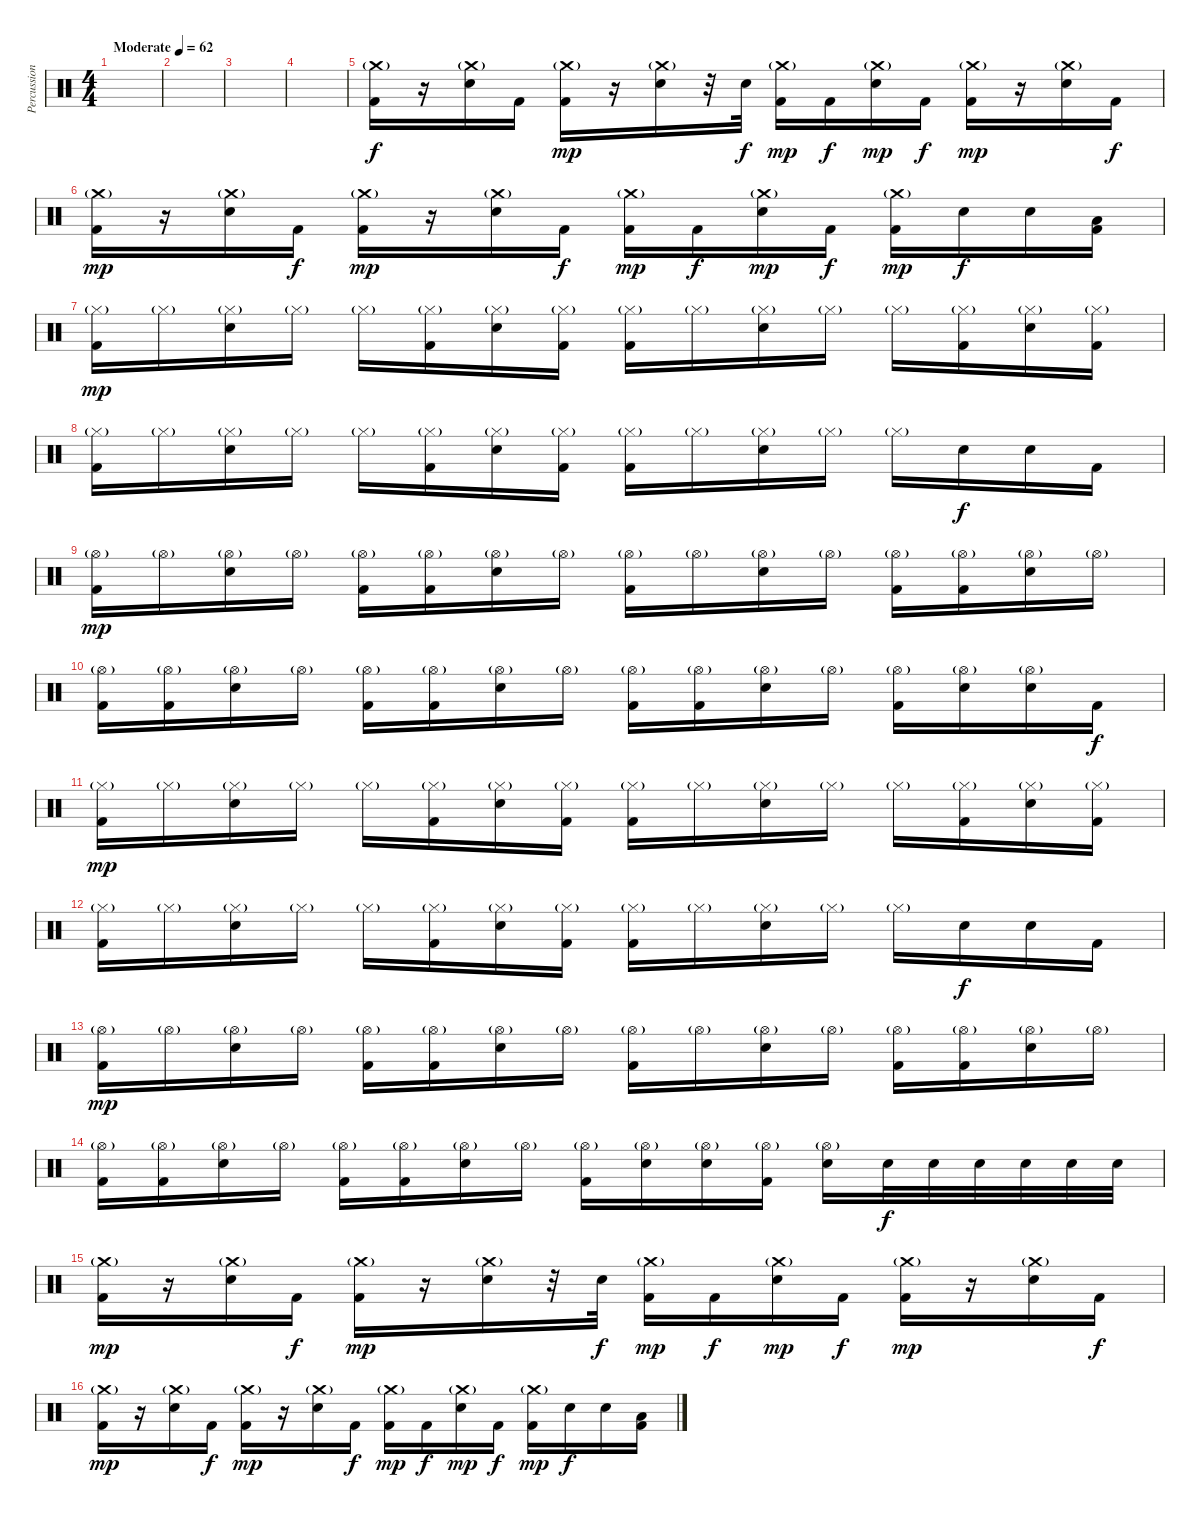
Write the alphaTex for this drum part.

\track ("Percussion" "Percussion") {instrument percussion}
\staff {score}
\articulation defaults
\ts (4 4)
\tempo (62 "Moderate")
\clef neutral
\ks c
|
|
|
|
("Crash medium (hit)"{g} "Kick (hit) 2").16 r.16 ("Crash medium (hit)"{g} "Electric Snare (hit)").16 "Kick (hit) 2".16{dy f} ("Crash medium (hit)"{g} "Kick (hit) 2").16{dy mp} r.16 ("Crash medium (hit)"{g} "Electric Snare (hit)").16 r.32 "Electric Snare (hit)".32{dy f} ("Crash medium (hit)"{g} "Kick (hit) 2").16{dy mp} "Kick (hit) 2".16{dy f} ("Crash medium (hit)"{g} "Electric Snare (hit)").16{dy mp} "Kick (hit) 2".16{dy f} ("Crash medium (hit)"{g} "Kick (hit) 2").16{dy mp} r.16 ("Crash medium (hit)"{g} "Electric Snare (hit)").16 "Kick (hit) 2".16{dy f} |
("Crash medium (hit)"{g} "Kick (hit) 2").16{dy mp} r.16 ("Crash medium (hit)"{g} "Electric Snare (hit)").16 "Kick (hit) 2".16{dy f} ("Crash medium (hit)"{g} "Kick (hit) 2").16{dy mp} r.16 ("Crash medium (hit)"{g} "Electric Snare (hit)").16 "Kick (hit) 2".16{dy f} ("Crash medium (hit)"{g} "Kick (hit) 2").16{dy mp} "Kick (hit) 2".16{dy f} ("Crash medium (hit)"{g} "Electric Snare (hit)").16{dy mp} "Kick (hit) 2".16{dy f} ("Crash medium (hit)"{g} "Kick (hit) 2").16{dy mp} "Electric Snare (hit)".16{dy f} "Electric Snare (hit)".16 ("Low Tom (hit)" "Kick (hit) 2").16 |
("Hi-Hat (closed)"{g} "Kick (hit) 2").16{dy mp} "Hi-Hat (closed)"{g}.16 ("Hi-Hat (closed)"{g} "Electric Snare (hit)").16 "Hi-Hat (closed)"{g}.16 "Hi-Hat (closed)"{g}.16 ("Hi-Hat (closed)"{g} "Kick (hit) 2").16 ("Hi-Hat (closed)"{g} "Electric Snare (hit)").16 ("Hi-Hat (closed)"{g} "Kick (hit) 2").16 ("Hi-Hat (closed)"{g} "Kick (hit) 2").16 "Hi-Hat (closed)"{g}.16 ("Hi-Hat (closed)"{g} "Electric Snare (hit)").16 "Hi-Hat (closed)"{g}.16 "Hi-Hat (closed)"{g}.16 ("Hi-Hat (closed)"{g} "Kick (hit) 2").16 ("Hi-Hat (closed)"{g} "Electric Snare (hit)").16 ("Hi-Hat (closed)"{g} "Kick (hit) 2").16 |
("Hi-Hat (closed)"{g} "Kick (hit) 2").16 "Hi-Hat (closed)"{g}.16 ("Hi-Hat (closed)"{g} "Electric Snare (hit)").16 "Hi-Hat (closed)"{g}.16 "Hi-Hat (closed)"{g}.16 ("Hi-Hat (closed)"{g} "Kick (hit) 2").16 ("Hi-Hat (closed)"{g} "Electric Snare (hit)").16 ("Hi-Hat (closed)"{g} "Kick (hit) 2").16 ("Hi-Hat (closed)"{g} "Kick (hit) 2").16 "Hi-Hat (closed)"{g}.16 ("Hi-Hat (closed)"{g} "Electric Snare (hit)").16 "Hi-Hat (closed)"{g}.16 "Hi-Hat (closed)"{g}.16 "Electric Snare (hit)".16{dy f} "Electric Snare (hit)".16 "Kick (hit) 2".16 |
("Hi-Hat (open)"{g} "Kick (hit) 2").16{dy mp} "Hi-Hat (open)"{g}.16 ("Hi-Hat (open)"{g} "Electric Snare (hit)").16 "Hi-Hat (open)"{g}.16 ("Hi-Hat (open)"{g} "Kick (hit) 2").16 ("Hi-Hat (open)"{g} "Kick (hit) 2").16 ("Hi-Hat (open)"{g} "Electric Snare (hit)").16 "Hi-Hat (open)"{g}.16 ("Hi-Hat (open)"{g} "Kick (hit) 2").16 "Hi-Hat (open)"{g}.16 ("Hi-Hat (open)"{g} "Electric Snare (hit)").16 "Hi-Hat (open)"{g}.16 ("Hi-Hat (open)"{g} "Kick (hit) 2").16 ("Hi-Hat (open)"{g} "Kick (hit) 2").16 ("Hi-Hat (open)"{g} "Electric Snare (hit)").16 "Hi-Hat (open)"{g}.16 |
("Hi-Hat (open)"{g} "Kick (hit) 2").16 ("Hi-Hat (open)"{g} "Kick (hit) 2").16 ("Hi-Hat (open)"{g} "Electric Snare (hit)").16 "Hi-Hat (open)"{g}.16 ("Hi-Hat (open)"{g} "Kick (hit) 2").16 ("Hi-Hat (open)"{g} "Kick (hit) 2").16 ("Hi-Hat (open)"{g} "Electric Snare (hit)").16 "Hi-Hat (open)"{g}.16 ("Hi-Hat (open)"{g} "Kick (hit) 2").16 ("Hi-Hat (open)"{g} "Kick (hit) 2").16 ("Hi-Hat (open)"{g} "Electric Snare (hit)").16 "Hi-Hat (open)"{g}.16 ("Hi-Hat (open)"{g} "Kick (hit) 2").16 ("Hi-Hat (open)"{g} "Electric Snare (hit)").16 ("Hi-Hat (open)"{g} "Electric Snare (hit)").16 "Kick (hit) 2".16{dy f} |
("Hi-Hat (closed)"{g} "Kick (hit) 2").16{dy mp} "Hi-Hat (closed)"{g}.16 ("Hi-Hat (closed)"{g} "Electric Snare (hit)").16 "Hi-Hat (closed)"{g}.16 "Hi-Hat (closed)"{g}.16 ("Hi-Hat (closed)"{g} "Kick (hit) 2").16 ("Hi-Hat (closed)"{g} "Electric Snare (hit)").16 ("Hi-Hat (closed)"{g} "Kick (hit) 2").16 ("Hi-Hat (closed)"{g} "Kick (hit) 2").16 "Hi-Hat (closed)"{g}.16 ("Hi-Hat (closed)"{g} "Electric Snare (hit)").16 "Hi-Hat (closed)"{g}.16 "Hi-Hat (closed)"{g}.16 ("Hi-Hat (closed)"{g} "Kick (hit) 2").16 ("Hi-Hat (closed)"{g} "Electric Snare (hit)").16 ("Hi-Hat (closed)"{g} "Kick (hit) 2").16 |
("Hi-Hat (closed)"{g} "Kick (hit) 2").16 "Hi-Hat (closed)"{g}.16 ("Hi-Hat (closed)"{g} "Electric Snare (hit)").16 "Hi-Hat (closed)"{g}.16 "Hi-Hat (closed)"{g}.16 ("Hi-Hat (closed)"{g} "Kick (hit) 2").16 ("Hi-Hat (closed)"{g} "Electric Snare (hit)").16 ("Hi-Hat (closed)"{g} "Kick (hit) 2").16 ("Hi-Hat (closed)"{g} "Kick (hit) 2").16 "Hi-Hat (closed)"{g}.16 ("Hi-Hat (closed)"{g} "Electric Snare (hit)").16 "Hi-Hat (closed)"{g}.16 "Hi-Hat (closed)"{g}.16 "Electric Snare (hit)".16{dy f} "Electric Snare (hit)".16 "Kick (hit) 2".16 |
("Hi-Hat (open)"{g} "Kick (hit) 2").16{dy mp} "Hi-Hat (open)"{g}.16 ("Hi-Hat (open)"{g} "Electric Snare (hit)").16 "Hi-Hat (open)"{g}.16 ("Hi-Hat (open)"{g} "Kick (hit) 2").16 ("Hi-Hat (open)"{g} "Kick (hit) 2").16 ("Hi-Hat (open)"{g} "Electric Snare (hit)").16 "Hi-Hat (open)"{g}.16 ("Hi-Hat (open)"{g} "Kick (hit) 2").16 "Hi-Hat (open)"{g}.16 ("Hi-Hat (open)"{g} "Electric Snare (hit)").16 "Hi-Hat (open)"{g}.16 ("Hi-Hat (open)"{g} "Kick (hit) 2").16 ("Hi-Hat (open)"{g} "Kick (hit) 2").16 ("Hi-Hat (open)"{g} "Electric Snare (hit)").16 "Hi-Hat (open)"{g}.16 |
("Hi-Hat (open)"{g} "Kick (hit) 2").16 ("Hi-Hat (open)"{g} "Kick (hit) 2").16 ("Hi-Hat (open)"{g} "Electric Snare (hit)").16 "Hi-Hat (open)"{g}.16 ("Hi-Hat (open)"{g} "Kick (hit) 2").16 ("Hi-Hat (open)"{g} "Kick (hit) 2").16 ("Hi-Hat (open)"{g} "Electric Snare (hit)").16 "Hi-Hat (open)"{g}.16 ("Hi-Hat (open)"{g} "Kick (hit) 2").16 ("Hi-Hat (open)"{g} "Electric Snare (hit)").16 ("Hi-Hat (open)"{g} "Electric Snare (hit)").16 ("Hi-Hat (open)"{g} "Kick (hit) 2").16 ("Hi-Hat (open)"{g} "Electric Snare (hit)").16 "Electric Snare (hit)".32{dy f} "Electric Snare (hit)".32 "Electric Snare (hit)".32 "Electric Snare (hit)".32 "Electric Snare (hit)".32 "Electric Snare (hit)".32 |
("Crash medium (hit)"{g} "Kick (hit) 2").16{dy mp} r.16 ("Crash medium (hit)"{g} "Electric Snare (hit)").16 "Kick (hit) 2".16{dy f} ("Crash medium (hit)"{g} "Kick (hit) 2").16{dy mp} r.16 ("Crash medium (hit)"{g} "Electric Snare (hit)").16 r.32 "Electric Snare (hit)".32{dy f} ("Crash medium (hit)"{g} "Kick (hit) 2").16{dy mp} "Kick (hit) 2".16{dy f} ("Crash medium (hit)"{g} "Electric Snare (hit)").16{dy mp} "Kick (hit) 2".16{dy f} ("Crash medium (hit)"{g} "Kick (hit) 2").16{dy mp} r.16 ("Crash medium (hit)"{g} "Electric Snare (hit)").16 "Kick (hit) 2".16{dy f} |
("Crash medium (hit)"{g} "Kick (hit) 2").16{dy mp} r.16 ("Crash medium (hit)"{g} "Electric Snare (hit)").16 "Kick (hit) 2".16{dy f} ("Crash medium (hit)"{g} "Kick (hit) 2").16{dy mp} r.16 ("Crash medium (hit)"{g} "Electric Snare (hit)").16 "Kick (hit) 2".16{dy f} ("Crash medium (hit)"{g} "Kick (hit) 2").16{dy mp} "Kick (hit) 2".16{dy f} ("Crash medium (hit)"{g} "Electric Snare (hit)").16{dy mp} "Kick (hit) 2".16{dy f} ("Crash medium (hit)"{g} "Kick (hit) 2").16{dy mp} "Electric Snare (hit)".16{dy f} "Electric Snare (hit)".16 ("Low Tom (hit)" "Kick (hit) 2").16
